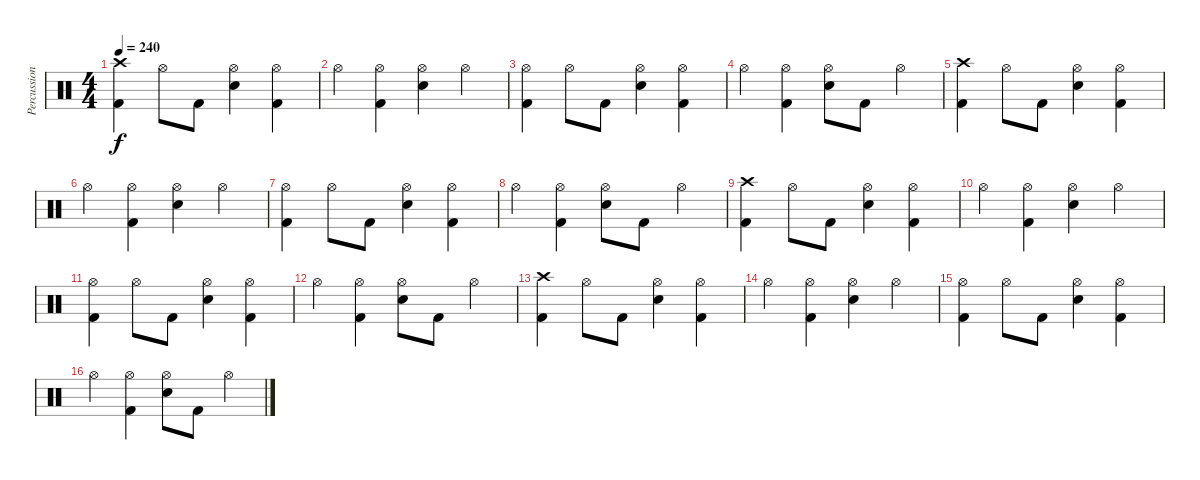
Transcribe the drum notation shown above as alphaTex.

\track ("Percussion" "Percussion") {instrument percussion}
\staff {score}
\articulation defaults
\ts (4 4)
\tempo 240
\clef neutral
\ks c
("Crash high (hit)" "Kick (hit) 2").4{dy f} "Hi-Hat (open)".8 "Kick (hit) 2".8 ("Hi-Hat (open)" "Snare (hit) 2").4 ("Hi-Hat (open)" "Kick (hit) 2").4 |
"Hi-Hat (open)".4 ("Hi-Hat (open)" "Kick (hit) 2").4 ("Hi-Hat (open)" "Snare (hit) 2").4 "Hi-Hat (open)".4 |
("Hi-Hat (open)" "Kick (hit) 2").4 "Hi-Hat (open)".8 "Kick (hit) 2".8 ("Hi-Hat (open)" "Snare (hit) 2").4 ("Hi-Hat (open)" "Kick (hit) 2").4 |
"Hi-Hat (open)".4 ("Hi-Hat (open)" "Kick (hit) 2").4 ("Hi-Hat (open)" "Snare (hit) 2").8 "Kick (hit) 2".8 "Hi-Hat (open)".4 |
("Crash high (hit)" "Kick (hit) 2").4 "Hi-Hat (open)".8 "Kick (hit) 2".8 ("Hi-Hat (open)" "Snare (hit) 2").4 ("Hi-Hat (open)" "Kick (hit) 2").4 |
"Hi-Hat (open)".4 ("Hi-Hat (open)" "Kick (hit) 2").4 ("Hi-Hat (open)" "Snare (hit) 2").4 "Hi-Hat (open)".4 |
("Hi-Hat (open)" "Kick (hit) 2").4 "Hi-Hat (open)".8 "Kick (hit) 2".8 ("Hi-Hat (open)" "Snare (hit) 2").4 ("Hi-Hat (open)" "Kick (hit) 2").4 |
"Hi-Hat (open)".4 ("Hi-Hat (open)" "Kick (hit) 2").4 ("Hi-Hat (open)" "Snare (hit) 2").8 "Kick (hit) 2".8 "Hi-Hat (open)".4 |
("Crash high (hit)" "Kick (hit) 2").4 "Hi-Hat (open)".8 "Kick (hit) 2".8 ("Hi-Hat (open)" "Snare (hit) 2").4 ("Hi-Hat (open)" "Kick (hit) 2").4 |
"Hi-Hat (open)".4 ("Hi-Hat (open)" "Kick (hit) 2").4 ("Hi-Hat (open)" "Snare (hit) 2").4 "Hi-Hat (open)".4 |
("Hi-Hat (open)" "Kick (hit) 2").4 "Hi-Hat (open)".8 "Kick (hit) 2".8 ("Hi-Hat (open)" "Snare (hit) 2").4 ("Hi-Hat (open)" "Kick (hit) 2").4 |
"Hi-Hat (open)".4 ("Hi-Hat (open)" "Kick (hit) 2").4 ("Hi-Hat (open)" "Snare (hit) 2").8 "Kick (hit) 2".8 "Hi-Hat (open)".4 |
("Crash high (hit)" "Kick (hit) 2").4 "Hi-Hat (open)".8 "Kick (hit) 2".8 ("Hi-Hat (open)" "Snare (hit) 2").4 ("Hi-Hat (open)" "Kick (hit) 2").4 |
"Hi-Hat (open)".4 ("Hi-Hat (open)" "Kick (hit) 2").4 ("Hi-Hat (open)" "Snare (hit) 2").4 "Hi-Hat (open)".4 |
("Hi-Hat (open)" "Kick (hit) 2").4 "Hi-Hat (open)".8 "Kick (hit) 2".8 ("Hi-Hat (open)" "Snare (hit) 2").4 ("Hi-Hat (open)" "Kick (hit) 2").4 |
"Hi-Hat (open)".4 ("Hi-Hat (open)" "Kick (hit) 2").4 ("Hi-Hat (open)" "Snare (hit) 2").8 "Kick (hit) 2".8 "Hi-Hat (open)".4
